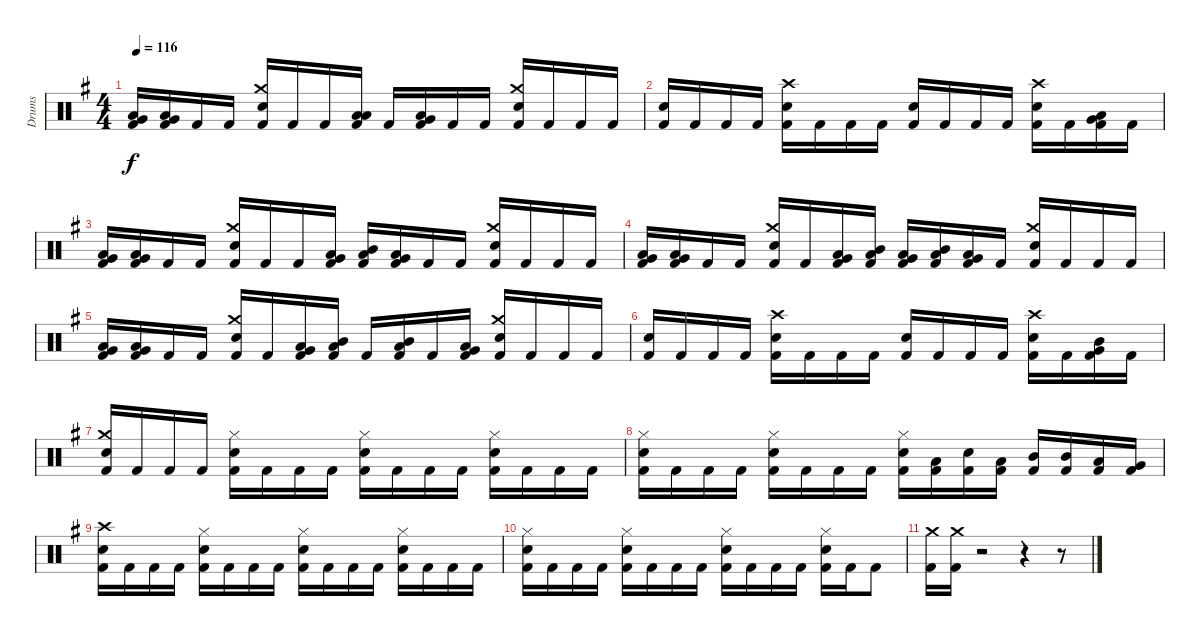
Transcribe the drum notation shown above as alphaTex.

\track ("Drums" "Drums") {instrument percussion}
\staff {score}
\articulation defaults
\ts (4 4)
\tempo 116
\clef neutral
\ks eminor
("Low Tom (hit)" "Very Low Tom (hit)" "Kick (hit) 2").16{dy f} ("Low Tom (hit)" "Very Low Tom (hit)" "Kick (hit) 2").16 "Kick (hit) 2".16 "Kick (hit) 2".16 ("Crash medium (hit)" "Snare (hit) 2" "Kick (hit) 2").16 "Kick (hit) 2".16 "Kick (hit) 2".16 ("Low Tom (hit)" "Low Floor Tom (hit)" "Kick (hit) 2").16 "Kick (hit) 2".16 ("Low Tom (hit)" "Very Low Tom (hit)" "Kick (hit) 2").16 "Kick (hit) 2".16 "Kick (hit) 2".16 ("Crash medium (hit)" "Snare (hit) 2" "Kick (hit) 2").16 "Kick (hit) 2".16 "Kick (hit) 2".16 "Kick (hit) 2".16 |
("Snare (hit) 2" "Kick (hit) 2").16 "Kick (hit) 2".16 "Kick (hit) 2".16 "Kick (hit) 2".16 ("Crash high (hit)" "Snare (hit) 2" "Kick (hit) 2").16 "Kick (hit) 2".16 "Kick (hit) 2".16 "Kick (hit) 2".16 ("Snare (hit) 2" "Kick (hit) 2").16 "Kick (hit) 2".16 "Kick (hit) 2".16 "Kick (hit) 2".16 ("Crash high (hit)" "Snare (hit) 2" "Kick (hit) 2").16 "Kick (hit) 2".16 ("Very Low Tom (hit)" "Low Floor Tom (hit)" "Kick (hit) 2").16 "Kick (hit) 2".16 |
("Low Tom (hit)" "Very Low Tom (hit)" "Kick (hit) 2").16 ("Low Tom (hit)" "Very Low Tom (hit)" "Kick (hit) 2").16 "Kick (hit) 2".16 "Kick (hit) 2".16 ("Crash medium (hit)" "Snare (hit) 2" "Kick (hit) 2").16 "Kick (hit) 2".16 "Kick (hit) 2".16 ("Low Tom (hit)" "Very Low Tom (hit)" "Kick (hit) 2").16 ("Mid Tom (hit)" "Low Floor Tom (hit)" "Kick (hit) 2").16 ("Low Tom (hit)" "Very Low Tom (hit)" "Kick (hit) 2").16 "Kick (hit) 2".16 "Kick (hit) 2".16 ("Crash medium (hit)" "Snare (hit) 2" "Kick (hit) 2").16 "Kick (hit) 2".16 "Kick (hit) 2".16 "Kick (hit) 2".16 |
("Low Tom (hit)" "Very Low Tom (hit)" "Kick (hit) 2").16 ("Low Tom (hit)" "Very Low Tom (hit)" "Kick (hit) 2").16 "Kick (hit) 2".16 "Kick (hit) 2".16 ("Crash medium (hit)" "Snare (hit) 2" "Kick (hit) 2").16 "Kick (hit) 2".16 ("Low Tom (hit)" "Very Low Tom (hit)" "Kick (hit) 2").16 ("Mid Tom (hit)" "Low Floor Tom (hit)" "Kick (hit) 2").16 ("Low Tom (hit)" "Very Low Tom (hit)" "Kick (hit) 2").16 ("Mid Tom (hit)" "Low Floor Tom (hit)" "Kick (hit) 2").16 ("Low Tom (hit)" "Very Low Tom (hit)" "Kick (hit) 2").16 "Kick (hit) 2".16 ("Crash medium (hit)" "Snare (hit) 2" "Kick (hit) 2").16 "Kick (hit) 2".16 "Kick (hit) 2".16 "Kick (hit) 2".16 |
("Low Tom (hit)" "Very Low Tom (hit)" "Kick (hit) 2").16 ("Low Tom (hit)" "Very Low Tom (hit)" "Kick (hit) 2").16 "Kick (hit) 2".16 "Kick (hit) 2".16 ("Crash medium (hit)" "Snare (hit) 2" "Kick (hit) 2").16 "Kick (hit) 2".16 ("Low Tom (hit)" "Very Low Tom (hit)" "Kick (hit) 2").16 ("Mid Tom (hit)" "Low Floor Tom (hit)" "Kick (hit) 2").16 "Kick (hit) 2".16 ("Mid Tom (hit)" "Low Floor Tom (hit)" "Kick (hit) 2").16 "Kick (hit) 2".16 ("Low Tom (hit)" "Very Low Tom (hit)" "Kick (hit) 2").16 ("Crash medium (hit)" "Snare (hit) 2" "Kick (hit) 2").16 "Kick (hit) 2".16 "Kick (hit) 2".16 "Kick (hit) 2".16 |
("Snare (hit) 2" "Kick (hit) 2").16 "Kick (hit) 2".16 "Kick (hit) 2".16 "Kick (hit) 2".16 ("Crash high (hit)" "Snare (hit) 2" "Kick (hit) 2").16 "Kick (hit) 2".16 "Kick (hit) 2".16 "Kick (hit) 2".16 ("Snare (hit) 2" "Kick (hit) 2").16 "Kick (hit) 2".16 "Kick (hit) 2".16 "Kick (hit) 2".16 ("Crash high (hit)" "Snare (hit) 2" "Kick (hit) 2").16 "Kick (hit) 2".16 ("Mid Tom (hit)" "Very Low Tom (hit)" "Kick (hit) 2").16 "Kick (hit) 2".16 |
("Crash medium (hit)" "Snare (hit) 2" "Kick (hit) 2").16 "Kick (hit) 2".16 "Kick (hit) 2".16 "Kick (hit) 2".16 ("Hi-Hat (closed)" "Snare (hit) 2" "Kick (hit) 2").16 "Kick (hit) 2".16 "Kick (hit) 2".16 "Kick (hit) 2".16 ("Hi-Hat (closed)" "Snare (hit) 2" "Kick (hit) 2").16 "Kick (hit) 2".16 "Kick (hit) 2".16 "Kick (hit) 2".16 ("Hi-Hat (closed)" "Snare (hit) 2" "Kick (hit) 2").16 "Kick (hit) 2".16 "Kick (hit) 2".16 "Kick (hit) 2".16 |
("Hi-Hat (closed)" "Snare (hit) 2" "Kick (hit) 2").16 "Kick (hit) 2".16 "Kick (hit) 2".16 "Kick (hit) 2".16 ("Hi-Hat (closed)" "Snare (hit) 2" "Kick (hit) 2").16 "Kick (hit) 2".16 "Kick (hit) 2".16 "Kick (hit) 2".16 ("Hi-Hat (closed)" "Snare (hit) 2" "Kick (hit) 2").16 ("Low Tom (hit)" "Kick (hit) 2").16 ("Snare (hit) 2" "Kick (hit) 2").16 ("Low Tom (hit)" "Kick (hit) 2").16 ("Mid Tom (hit)" "Kick (hit) 2").16 ("Mid Tom (hit)" "Kick (hit) 2").16 ("Low Tom (hit)" "Kick (hit) 2").16 ("Very Low Tom (hit)" "Kick (hit) 2").16 |
("Crash high (hit)" "Snare (hit) 2" "Kick (hit) 2").16 "Kick (hit) 2".16 "Kick (hit) 2".16 "Kick (hit) 2".16 ("Hi-Hat (closed)" "Snare (hit) 2" "Kick (hit) 2").16 "Kick (hit) 2".16 "Kick (hit) 2".16 "Kick (hit) 2".16 ("Hi-Hat (closed)" "Snare (hit) 2" "Kick (hit) 2").16 "Kick (hit) 2".16 "Kick (hit) 2".16 "Kick (hit) 2".16 ("Hi-Hat (closed)" "Snare (hit) 2" "Kick (hit) 2").16 "Kick (hit) 2".16 "Kick (hit) 2".16 "Kick (hit) 2".16 |
("Hi-Hat (closed)" "Snare (hit) 2" "Kick (hit) 2").16 "Kick (hit) 2".16 "Kick (hit) 2".16 "Kick (hit) 2".16 ("Hi-Hat (closed)" "Snare (hit) 2" "Kick (hit) 2").16 "Kick (hit) 2".16 "Kick (hit) 2".16 "Kick (hit) 2".16 ("Hi-Hat (closed)" "Snare (hit) 2" "Kick (hit) 2").16 "Kick (hit) 2".16 "Kick (hit) 2".16 "Kick (hit) 2".16 ("Hi-Hat (closed)" "Snare (hit) 2" "Kick (hit) 2").16 "Kick (hit) 2".16 "Kick (hit) 2".8 |
("Crash medium (hit)" "Kick (hit) 2").16 ("Crash medium (hit)" "Kick (hit) 2").16 r.2 r.4 r.8
